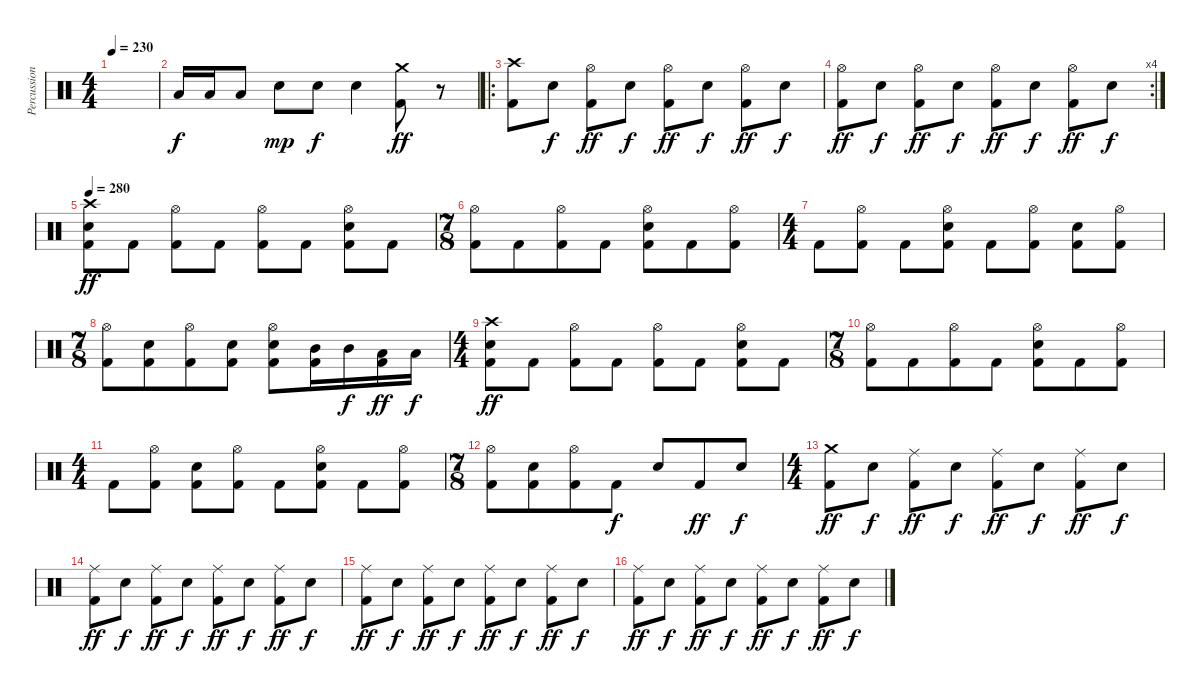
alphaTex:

\track ("Percussion" "Percussion") {instrument percussion}
\staff {score}
\articulation defaults
\ts (4 4)
\tempo 230
\clef neutral
\ks c
|
"Low Tom (hit)".16{volume 14} "Low Tom (hit)".16 "Low Tom (hit)".8{dy f} "Electric Snare (hit)".8{dy mp} "Electric Snare (hit)".8{dy f} "Electric Snare (hit)".4 ("Crash medium (hit)" "Kick (hit) 2").8{dy ff} r.8 |
\ro
("Crash high (hit)" "Kick (hit) 2").8{volume 11} "Electric Snare (hit)".8{dy f} ("Hi-Hat (open)" "Kick (hit) 2").8{dy ff} "Electric Snare (hit)".8{dy f} ("Hi-Hat (open)" "Kick (hit) 2").8{dy ff} "Electric Snare (hit)".8{dy f} ("Hi-Hat (open)" "Kick (hit) 2").8{dy ff} "Electric Snare (hit)".8{dy f} |
\rc 4
("Hi-Hat (open)" "Kick (hit) 2").8{dy ff} "Electric Snare (hit)".8{dy f} ("Hi-Hat (open)" "Kick (hit) 2").8{dy ff} "Electric Snare (hit)".8{dy f} ("Hi-Hat (open)" "Kick (hit) 2").8{dy ff} "Electric Snare (hit)".8{dy f} ("Hi-Hat (open)" "Kick (hit) 2").8{dy ff} "Electric Snare (hit)".8{dy f} |
\tempo 280
("Crash high (hit)" "Electric Snare (hit)" "Kick (hit) 2").8{dy ff} "Kick (hit) 2".8 ("Hi-Hat (open)" "Kick (hit) 2").8 "Kick (hit) 2".8 ("Hi-Hat (open)" "Kick (hit) 2").8 "Kick (hit) 2".8 ("Hi-Hat (open)" "Electric Snare (hit)" "Kick (hit) 2").8 "Kick (hit) 2".8 |
\ts (7 8)
("Hi-Hat (open)" "Kick (hit) 2").8 "Kick (hit) 2".8 ("Hi-Hat (open)" "Kick (hit) 2").8 "Kick (hit) 2".8 ("Hi-Hat (open)" "Electric Snare (hit)" "Kick (hit) 2").8 "Kick (hit) 2".8 ("Hi-Hat (open)" "Kick (hit) 2").8 |
\ts (4 4)
"Kick (hit) 2".8 ("Hi-Hat (open)" "Kick (hit) 2").8 "Kick (hit) 2".8 ("Hi-Hat (open)" "Electric Snare (hit)" "Kick (hit) 2").8 "Kick (hit) 2".8 ("Hi-Hat (open)" "Kick (hit) 2").8 ("Electric Snare (hit)" "Kick (hit) 2").8 ("Hi-Hat (open)" "Kick (hit) 2").8 |
\ts (7 8)
("Hi-Hat (open)" "Kick (hit) 2").8 ("Electric Snare (hit)" "Kick (hit) 2").8 ("Hi-Hat (open)" "Kick (hit) 2").8 ("Electric Snare (hit)" "Kick (hit) 2").8 ("Hi-Hat (open)" "Electric Snare (hit)" "Kick (hit) 2").8 ("Mid Tom (hit)" "Kick (hit) 2").16 "Mid Tom (hit)".16{dy f} ("Low Tom (hit)" "Kick (hit) 2").16{dy ff} "Low Tom (hit)".16{dy f} |
\ts (4 4)
("Crash high (hit)" "Electric Snare (hit)" "Kick (hit) 2").8{dy ff} "Kick (hit) 2".8 ("Hi-Hat (open)" "Kick (hit) 2").8 "Kick (hit) 2".8 ("Hi-Hat (open)" "Kick (hit) 2").8 "Kick (hit) 2".8 ("Hi-Hat (open)" "Electric Snare (hit)" "Kick (hit) 2").8 "Kick (hit) 2".8 |
\ts (7 8)
("Hi-Hat (open)" "Kick (hit) 2").8 "Kick (hit) 2".8 ("Hi-Hat (open)" "Kick (hit) 2").8 "Kick (hit) 2".8 ("Hi-Hat (open)" "Electric Snare (hit)" "Kick (hit) 2").8 "Kick (hit) 2".8 ("Hi-Hat (open)" "Kick (hit) 2").8 |
\ts (4 4)
"Kick (hit) 2".8 ("Hi-Hat (open)" "Kick (hit) 2").8 ("Electric Snare (hit)" "Kick (hit) 2").8 ("Hi-Hat (open)" "Kick (hit) 2").8 "Kick (hit) 2".8 ("Hi-Hat (open)" "Electric Snare (hit)" "Kick (hit) 2").8 "Kick (hit) 2".8 ("Hi-Hat (open)" "Kick (hit) 2").8 |
\ts (7 8)
("Hi-Hat (open)" "Kick (hit) 2").8 ("Electric Snare (hit)" "Kick (hit) 2").8 ("Hi-Hat (open)" "Kick (hit) 2").8 "Kick (hit) 2".8{dy f} "Electric Snare (hit)".8 "Kick (hit) 2".8{dy ff} "Electric Snare (hit)".8{dy f} |
\ts (4 4)
("Crash medium (hit)" "Kick (hit) 2").8{dy ff} "Electric Snare (hit)".8{dy f} ("Ride (middle)" "Kick (hit) 2").8{dy ff} "Electric Snare (hit)".8{dy f} ("Ride (middle)" "Kick (hit) 2").8{dy ff} "Electric Snare (hit)".8{dy f} ("Ride (middle)" "Kick (hit) 2").8{dy ff} "Electric Snare (hit)".8{dy f} |
("Ride (middle)" "Kick (hit) 2").8{dy ff} "Electric Snare (hit)".8{dy f} ("Ride (middle)" "Kick (hit) 2").8{dy ff} "Electric Snare (hit)".8{dy f} ("Ride (middle)" "Kick (hit) 2").8{dy ff} "Electric Snare (hit)".8{dy f} ("Ride (middle)" "Kick (hit) 2").8{dy ff} "Electric Snare (hit)".8{dy f} |
("Ride (middle)" "Kick (hit) 2").8{dy ff} "Electric Snare (hit)".8{dy f} ("Ride (middle)" "Kick (hit) 2").8{dy ff} "Electric Snare (hit)".8{dy f} ("Ride (middle)" "Kick (hit) 2").8{dy ff} "Electric Snare (hit)".8{dy f} ("Ride (middle)" "Kick (hit) 2").8{dy ff} "Electric Snare (hit)".8{dy f} |
("Ride (middle)" "Kick (hit) 2").8{dy ff} "Electric Snare (hit)".8{dy f} ("Ride (middle)" "Kick (hit) 2").8{dy ff} "Electric Snare (hit)".8{dy f} ("Ride (middle)" "Kick (hit) 2").8{dy ff} "Electric Snare (hit)".8{dy f} ("Ride (middle)" "Kick (hit) 2").8{dy ff} "Electric Snare (hit)".8{dy f}
